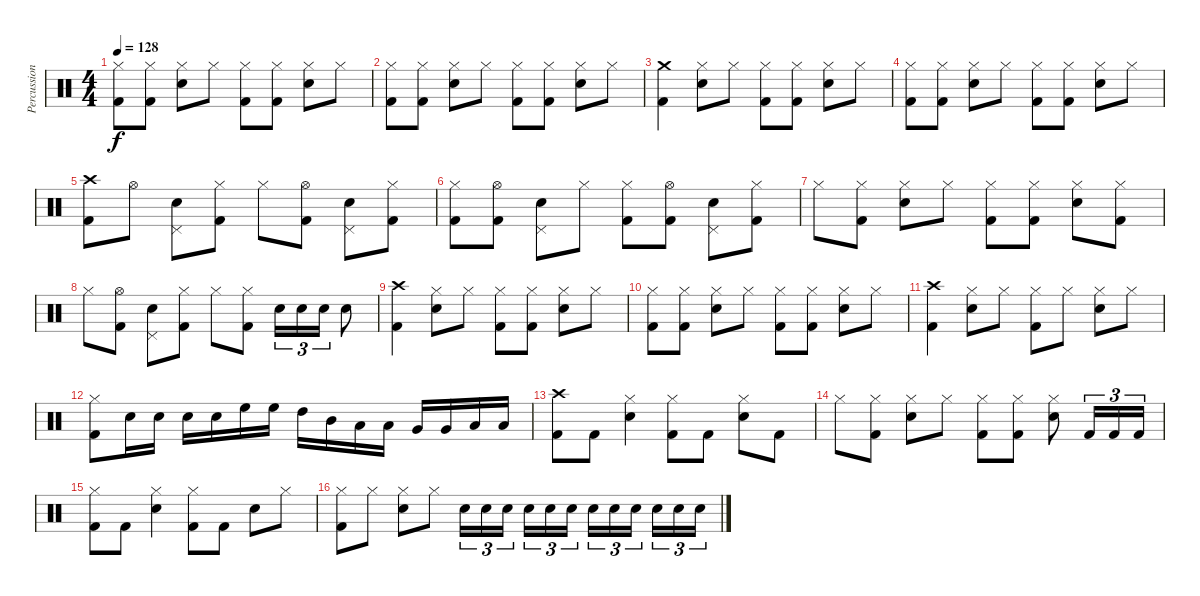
\track ("Percussion" "Percussion") {instrument percussion}
\staff {score}
\articulation defaults
\ts (4 4)
\tempo 128
\clef neutral
\ks c
("Kick (hit) 2" "Hi-Hat (closed)").8{dy f} ("Kick (hit) 2" "Hi-Hat (closed)").8 ("Snare (hit) 2" "Hi-Hat (closed)").8 "Hi-Hat (closed)".8 ("Kick (hit) 2" "Hi-Hat (closed)").8 ("Kick (hit) 2" "Hi-Hat (closed)").8 ("Snare (hit) 2" "Hi-Hat (closed)").8 "Hi-Hat (closed)".8 |
("Kick (hit) 2" "Hi-Hat (closed)").8 ("Kick (hit) 2" "Hi-Hat (closed)").8 ("Snare (hit) 2" "Hi-Hat (closed)").8 "Hi-Hat (closed)".8 ("Kick (hit) 2" "Hi-Hat (closed)").8 ("Kick (hit) 2" "Hi-Hat (closed)").8 ("Snare (hit) 2" "Hi-Hat (closed)").8 "Hi-Hat (closed)".8 |
("Kick (hit) 2" "Crash medium (hit)").4 ("Snare (hit) 2" "Hi-Hat (closed)").8 "Hi-Hat (closed)".8 ("Kick (hit) 2" "Hi-Hat (closed)").8 ("Kick (hit) 2" "Hi-Hat (closed)").8 ("Snare (hit) 2" "Hi-Hat (closed)").8 "Hi-Hat (closed)".8 |
("Kick (hit) 2" "Hi-Hat (closed)").8 ("Kick (hit) 2" "Hi-Hat (closed)").8 ("Snare (hit) 2" "Hi-Hat (closed)").8 "Hi-Hat (closed)".8 ("Kick (hit) 2" "Hi-Hat (closed)").8 ("Kick (hit) 2" "Hi-Hat (closed)").8 ("Snare (hit) 2" "Hi-Hat (closed)").8 "Hi-Hat (closed)".8 |
("Kick (hit) 2" "Crash high (hit)").8 "Hi-Hat (open)".8 ("Snare (hit) 2" "Pedal Hi-Hat (hit)").8 ("Kick (hit) 2" "Hi-Hat (closed)").8 "Hi-Hat (closed)".8 ("Kick (hit) 2" "Hi-Hat (open)").8 ("Snare (hit) 2" "Pedal Hi-Hat (hit)").8 ("Kick (hit) 2" "Hi-Hat (closed)").8 |
("Kick (hit) 2" "Hi-Hat (closed)").8 ("Kick (hit) 2" "Hi-Hat (open)").8 ("Snare (hit) 2" "Pedal Hi-Hat (hit)").8 "Hi-Hat (closed)".8 ("Kick (hit) 2" "Hi-Hat (closed)").8 ("Kick (hit) 2" "Hi-Hat (open)").8 ("Snare (hit) 2" "Pedal Hi-Hat (hit)").8 ("Kick (hit) 2" "Hi-Hat (closed)").8 |
"Hi-Hat (closed)".8 ("Kick (hit) 2" "Hi-Hat (closed)").8 ("Snare (hit) 2" "Hi-Hat (closed)").8 "Hi-Hat (closed)".8 ("Kick (hit) 2" "Hi-Hat (closed)").8 ("Kick (hit) 2" "Hi-Hat (closed)").8 ("Snare (hit) 2" "Hi-Hat (closed)").8 ("Kick (hit) 2" "Hi-Hat (closed)").8 |
"Hi-Hat (closed)".8 ("Kick (hit) 2" "Hi-Hat (open)").8 ("Snare (hit) 2" "Pedal Hi-Hat (hit)").8 ("Kick (hit) 2" "Hi-Hat (closed)").8 "Hi-Hat (closed)".8 ("Kick (hit) 2" "Hi-Hat (closed)").8 "Snare (hit) 2".16{tu (3 2)} "Snare (hit) 2".16{tu (3 2)} "Snare (hit) 2".16{tu (3 2)} "Snare (hit) 2".8 |
("Kick (hit) 2" "Crash high (hit)").4 ("Snare (hit) 2" "Hi-Hat (closed)").8 "Hi-Hat (closed)".8 ("Kick (hit) 2" "Hi-Hat (closed)").8 ("Kick (hit) 2" "Hi-Hat (closed)").8 ("Snare (hit) 2" "Hi-Hat (closed)").8 "Hi-Hat (closed)".8 |
("Kick (hit) 2" "Hi-Hat (closed)").8 ("Kick (hit) 2" "Hi-Hat (closed)").8 ("Snare (hit) 2" "Hi-Hat (closed)").8 "Hi-Hat (closed)".8 ("Kick (hit) 2" "Hi-Hat (closed)").8 ("Kick (hit) 2" "Hi-Hat (closed)").8 ("Snare (hit) 2" "Hi-Hat (closed)").8 "Hi-Hat (closed)".8 |
("Kick (hit) 2" "Crash high (hit)").4 ("Snare (hit) 2" "Hi-Hat (closed)").8 "Hi-Hat (closed)".8 ("Kick (hit) 2" "Hi-Hat (closed)").8 "Hi-Hat (closed)".8 ("Snare (hit) 2" "Hi-Hat (closed)").8 "Hi-Hat (closed)".8 |
("Kick (hit) 2" "Hi-Hat (closed)").8 "Snare (hit) 2".16 "Snare (hit) 2".16 "Snare (hit) 2".16 "Snare (hit) 2".16 "High Floor Tom (hit)".16 "High Floor Tom (hit)".16 "High Tom (hit)".16 "Mid Tom (hit)".16 "Low Tom (hit)".16 "Low Tom (hit)".16 "Very Low Tom (hit)".16 "Very Low Tom (hit)".16 "Low Floor Tom (hit)".16 "Low Floor Tom (hit)".16 |
("Kick (hit) 2" "Crash high (hit)").8 "Kick (hit) 2".8 ("Snare (hit) 2" "Hi-Hat (closed)").4 ("Kick (hit) 2" "Hi-Hat (closed)").8 "Kick (hit) 2".8 ("Snare (hit) 2" "Hi-Hat (closed)").8 "Kick (hit) 2".8 |
"Hi-Hat (closed)".8 ("Kick (hit) 2" "Hi-Hat (closed)").8 ("Snare (hit) 2" "Hi-Hat (closed)").8 "Hi-Hat (closed)".8 ("Kick (hit) 2" "Hi-Hat (closed)").8 ("Kick (hit) 2" "Hi-Hat (closed)").8 ("Snare (hit) 2" "Hi-Hat (closed)").8 "Kick (hit) 2".16{tu (3 2)} "Kick (hit) 2".16{tu (3 2)} "Kick (hit) 2".16{tu (3 2)} |
("Kick (hit) 2" "Hi-Hat (closed)").8 "Kick (hit) 2".8 ("Snare (hit) 2" "Hi-Hat (closed)").4 ("Kick (hit) 2" "Hi-Hat (closed)").8 "Kick (hit) 2".8 "Snare (hit) 2".8 "Hi-Hat (closed)".8 |
("Kick (hit) 2" "Hi-Hat (closed)").8 "Hi-Hat (closed)".8 ("Snare (hit) 2" "Hi-Hat (closed)").8 "Hi-Hat (closed)".8 "Snare (hit) 2".16{tu (3 2)} "Snare (hit) 2".16{tu (3 2)} "Snare (hit) 2".16{tu (3 2)} "Snare (hit) 2".16{tu (3 2)} "Snare (hit) 2".16{tu (3 2)} "Snare (hit) 2".16{tu (3 2)} "Snare (hit) 2".16{tu (3 2)} "Snare (hit) 2".16{tu (3 2)} "Snare (hit) 2".16{tu (3 2)} "Snare (hit) 2".16{tu (3 2)} "Snare (hit) 2".16{tu (3 2)} "Snare (hit) 2".16{tu (3 2)}
